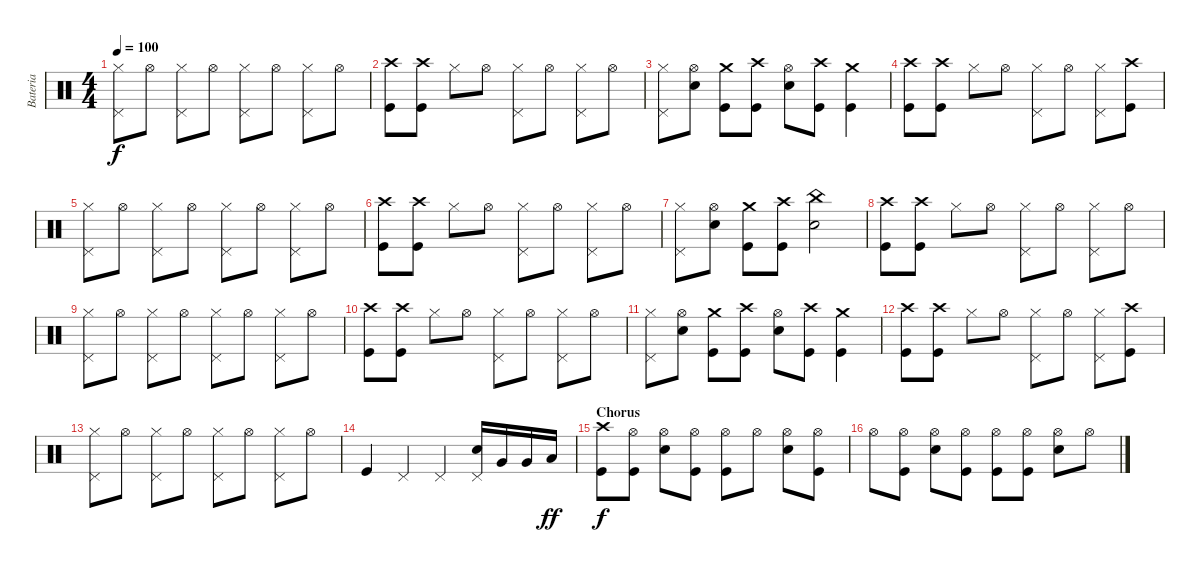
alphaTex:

\track ("Bateria" "Bateria") {instrument percussion}
\staff {score}
\articulation defaults
\ts (4 4)
\tempo 100
\clef neutral
\ks c
("Hi-Hat (closed)" "Pedal Hi-Hat (hit)").8{dy f} "Hi-Hat (open)".8 ("Hi-Hat (closed)" "Pedal Hi-Hat (hit)").8 "Hi-Hat (open)".8 ("Hi-Hat (closed)" "Pedal Hi-Hat (hit)").8 "Hi-Hat (open)".8 ("Hi-Hat (closed)" "Pedal Hi-Hat (hit)").8 "Hi-Hat (open)".8 |
("Crash high (hit)" "Kick (hit)").8 ("Crash high (hit)" "Kick (hit)").8 "Hi-Hat (closed)".8 "Hi-Hat (open)".8 ("Hi-Hat (closed)" "Pedal Hi-Hat (hit)").8 "Hi-Hat (open)".8 ("Hi-Hat (closed)" "Pedal Hi-Hat (hit)").8 "Hi-Hat (open)".8 |
("Hi-Hat (closed)" "Pedal Hi-Hat (hit)").8 ("Hi-Hat (open)" "Electric Snare (hit)").8 ("Crash medium (hit)" "Kick (hit)").8 ("Crash high (hit)" "Kick (hit)").8 ("Hi-Hat (open)" "Electric Snare (hit)").8 ("Crash high (hit)" "Kick (hit)").8 ("Crash medium (hit)" "Kick (hit)").4 |
("Crash high (hit)" "Kick (hit)").8 ("Crash high (hit)" "Kick (hit)").8 "Hi-Hat (closed)".8 "Hi-Hat (open)".8 ("Hi-Hat (closed)" "Pedal Hi-Hat (hit)").8 "Hi-Hat (open)".8 ("Hi-Hat (closed)" "Pedal Hi-Hat (hit)").8 ("Crash high (hit)" "Kick (hit)").8 |
("Hi-Hat (closed)" "Pedal Hi-Hat (hit)").8 "Hi-Hat (open)".8 ("Hi-Hat (closed)" "Pedal Hi-Hat (hit)").8 "Hi-Hat (open)".8 ("Hi-Hat (closed)" "Pedal Hi-Hat (hit)").8 "Hi-Hat (open)".8 ("Hi-Hat (closed)" "Pedal Hi-Hat (hit)").8 "Hi-Hat (open)".8 |
("Crash high (hit)" "Kick (hit)").8 ("Crash high (hit)" "Kick (hit)").8 "Hi-Hat (closed)".8 "Hi-Hat (open)".8 ("Hi-Hat (closed)" "Pedal Hi-Hat (hit)").8 "Hi-Hat (open)".8 ("Hi-Hat (closed)" "Pedal Hi-Hat (hit)").8 "Hi-Hat (open)".8 |
("Hi-Hat (closed)" "Pedal Hi-Hat (hit)").8 ("Hi-Hat (open)" "Electric Snare (hit)").8 ("Crash medium (hit)" "Kick (hit)").8 ("Crash high (hit)" "Kick (hit)").8 ("China (hit)" "Electric Snare (hit)").2 |
("Crash high (hit)" "Kick (hit)").8 ("Crash high (hit)" "Kick (hit)").8 "Hi-Hat (closed)".8 "Hi-Hat (open)".8 ("Hi-Hat (closed)" "Pedal Hi-Hat (hit)").8 "Hi-Hat (open)".8 ("Hi-Hat (closed)" "Pedal Hi-Hat (hit)").8 "Hi-Hat (open)".8 |
("Hi-Hat (closed)" "Pedal Hi-Hat (hit)").8 "Hi-Hat (open)".8 ("Hi-Hat (closed)" "Pedal Hi-Hat (hit)").8 "Hi-Hat (open)".8 ("Hi-Hat (closed)" "Pedal Hi-Hat (hit)").8 "Hi-Hat (open)".8 ("Hi-Hat (closed)" "Pedal Hi-Hat (hit)").8 "Hi-Hat (open)".8 |
("Crash high (hit)" "Kick (hit)").8 ("Crash high (hit)" "Kick (hit)").8 "Hi-Hat (closed)".8 "Hi-Hat (open)".8 ("Hi-Hat (closed)" "Pedal Hi-Hat (hit)").8 "Hi-Hat (open)".8 ("Hi-Hat (closed)" "Pedal Hi-Hat (hit)").8 "Hi-Hat (open)".8 |
("Hi-Hat (closed)" "Pedal Hi-Hat (hit)").8 ("Hi-Hat (open)" "Electric Snare (hit)").8 ("Crash medium (hit)" "Kick (hit)").8 ("Crash high (hit)" "Kick (hit)").8 ("Hi-Hat (open)" "Electric Snare (hit)").8 ("Crash high (hit)" "Kick (hit)").8 ("Crash medium (hit)" "Kick (hit)").4 |
("Crash high (hit)" "Kick (hit)").8 ("Crash high (hit)" "Kick (hit)").8 "Hi-Hat (closed)".8 "Hi-Hat (open)".8 ("Hi-Hat (closed)" "Pedal Hi-Hat (hit)").8 "Hi-Hat (open)".8 ("Hi-Hat (closed)" "Pedal Hi-Hat (hit)").8 ("Crash high (hit)" "Kick (hit)").8 |
("Hi-Hat (closed)" "Pedal Hi-Hat (hit)").8 "Hi-Hat (open)".8 ("Hi-Hat (closed)" "Pedal Hi-Hat (hit)").8 "Hi-Hat (open)".8 ("Hi-Hat (closed)" "Pedal Hi-Hat (hit)").8 "Hi-Hat (open)".8 ("Hi-Hat (closed)" "Pedal Hi-Hat (hit)").8 "Hi-Hat (open)".8 |
"Kick (hit)".4 "Pedal Hi-Hat (hit)".4 "Pedal Hi-Hat (hit)".4 ("Electric Snare (hit)" "Pedal Hi-Hat (hit)").16 "Very Low Tom (hit)".16 "Very Low Tom (hit)".16 "Low Floor Tom (hit)".16{dy ff} |
\section ("" "Chorus")
("Crash high (hit)" "Kick (hit)").8{dy f} ("Hi-Hat (open)" "Kick (hit)").8 ("Hi-Hat (open)" "Electric Snare (hit)").8 ("Hi-Hat (open)" "Kick (hit)").8 ("Hi-Hat (open)" "Kick (hit)").8 "Hi-Hat (open)".8 ("Hi-Hat (open)" "Electric Snare (hit)").8 ("Hi-Hat (open)" "Kick (hit)").8 |
"Hi-Hat (open)".8 ("Hi-Hat (open)" "Kick (hit)").8 ("Hi-Hat (open)" "Electric Snare (hit)").8 ("Hi-Hat (open)" "Kick (hit)").8 ("Hi-Hat (open)" "Kick (hit)").8 ("Hi-Hat (open)" "Kick (hit)").8 ("Hi-Hat (open)" "Electric Snare (hit)").8 "Hi-Hat (open)".8
